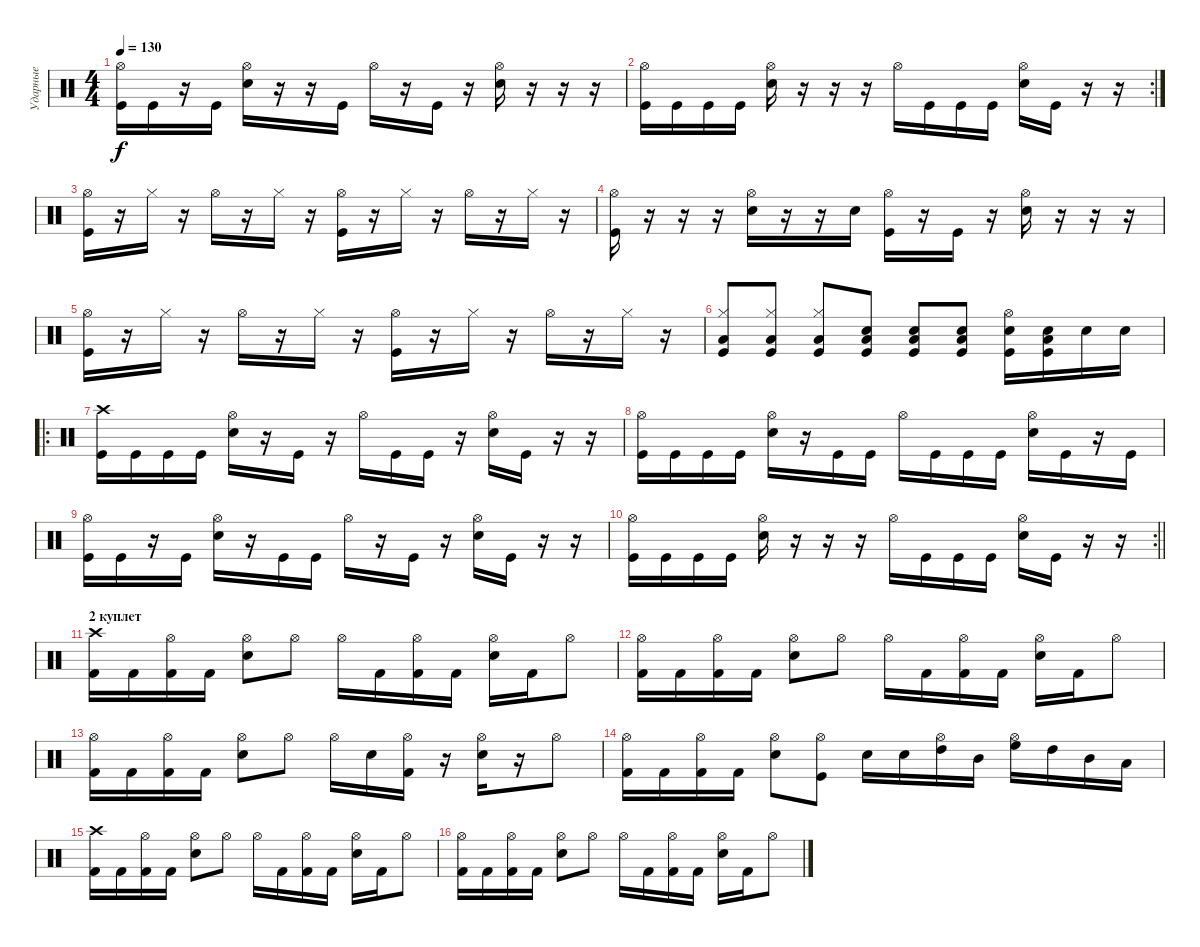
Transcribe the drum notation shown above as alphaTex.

\track ("Ударные" "Ударные") {instrument percussion}
\staff {score}
\articulation defaults
\ts (4 4)
\tempo 130
\clef neutral
\ks c
("Hi-Hat (open)" "Kick (hit)").16{dy f} "Kick (hit)".16 r.16 "Kick (hit)".16 ("Snare (hit) 2" "Hi-Hat (open)").16 r.16 r.16 "Kick (hit)".16 "Hi-Hat (open)".16 r.16 "Kick (hit)".16 r.16 ("Snare (hit) 2" "Hi-Hat (open)").16 r.16 r.16 r.16 |
\rc 2
("Hi-Hat (open)" "Kick (hit)").16 "Kick (hit)".16 "Kick (hit)".16 "Kick (hit)".16 ("Snare (hit) 2" "Hi-Hat (open)").16 r.16 r.16 r.16 "Hi-Hat (open)".16 "Kick (hit)".16 "Kick (hit)".16 "Kick (hit)".16 ("Snare (hit) 2" "Hi-Hat (open)").16 "Kick (hit)".16 r.16 r.16 |
("Hi-Hat (open)" "Kick (hit)").16 r.16 "Hi-Hat (closed)".16 r.16 "Hi-Hat (open)".16 r.16 "Hi-Hat (closed)".16 r.16 ("Hi-Hat (open)" "Kick (hit)").16 r.16 "Hi-Hat (closed)".16 r.16 "Hi-Hat (open)".16 r.16 "Hi-Hat (closed)".16 r.16 |
("Hi-Hat (open)" "Kick (hit)").16 r.16 r.16 r.16 ("Hi-Hat (open)" "Snare (hit) 2").16 r.16 r.16 "Snare (hit) 2".16 ("Hi-Hat (open)" "Kick (hit)").16 r.16 "Kick (hit)".16 r.16 ("Hi-Hat (open)" "Snare (hit) 2").16 r.16 r.16 r.16 |
("Hi-Hat (open)" "Kick (hit)").16 r.16 "Hi-Hat (closed)".16 r.16 "Hi-Hat (open)".16 r.16 "Hi-Hat (closed)".16 r.16 ("Hi-Hat (open)" "Kick (hit)").16 r.16 "Hi-Hat (closed)".16 r.16 "Hi-Hat (open)".16 r.16 "Hi-Hat (closed)".16 r.16 |
("Kick (hit)" "Hi-Hat (closed)" "Low Floor Tom (hit)").8 ("Kick (hit)" "Hi-Hat (closed)" "Low Floor Tom (hit)").8 ("Kick (hit)" "Hi-Hat (closed)" "Low Floor Tom (hit)").8 ("Kick (hit)" "Snare (hit) 2" "Low Floor Tom (hit)").8 ("Kick (hit)" "Snare (hit) 2" "Low Floor Tom (hit)").8 ("Kick (hit)" "Snare (hit) 2" "Low Floor Tom (hit)").8 ("Kick (hit)" "Snare (hit) 2" "Hi-Hat (open)").16 ("Kick (hit)" "Snare (hit) 2" "Low Floor Tom (hit)").16 "Snare (hit) 2".16 "Snare (hit) 2".16 |
\ro
("Crash high (hit)" "Kick (hit)").16 "Kick (hit)".16 "Kick (hit)".16 "Kick (hit)".16 ("Snare (hit) 2" "Hi-Hat (open)").16 r.16 "Kick (hit)".16 r.16 "Hi-Hat (open)".16 "Kick (hit)".16 "Kick (hit)".16 r.16 ("Snare (hit) 2" "Hi-Hat (open)").16 "Kick (hit)".16 r.16 r.16 |
("Hi-Hat (open)" "Kick (hit)").16 "Kick (hit)".16 "Kick (hit)".16 "Kick (hit)".16 ("Snare (hit) 2" "Hi-Hat (open)").16 r.16 "Kick (hit)".16 "Kick (hit)".16 "Hi-Hat (open)".16 "Kick (hit)".16 "Kick (hit)".16 "Kick (hit)".16 ("Snare (hit) 2" "Hi-Hat (open)").16 "Kick (hit)".16 r.16 "Kick (hit)".16 |
("Hi-Hat (open)" "Kick (hit)").16 "Kick (hit)".16 r.16 "Kick (hit)".16 ("Snare (hit) 2" "Hi-Hat (open)").16 r.16 "Kick (hit)".16 "Kick (hit)".16 "Hi-Hat (open)".16 r.16 "Kick (hit)".16 r.16 ("Snare (hit) 2" "Hi-Hat (open)").16 "Kick (hit)".16 r.16 r.16 |
\rc 2
\barLineRight lightlight
("Hi-Hat (open)" "Kick (hit)").16 "Kick (hit)".16 "Kick (hit)".16 "Kick (hit)".16 ("Snare (hit) 2" "Hi-Hat (open)").16 r.16 r.16 r.16 "Hi-Hat (open)".16 "Kick (hit)".16 "Kick (hit)".16 "Kick (hit)".16 ("Snare (hit) 2" "Hi-Hat (open)").16 "Kick (hit)".16 r.16 r.16 |
\section ("" "2 куплет")
("Crash high (hit)" "Kick (hit) 2").16 "Kick (hit) 2".16 ("Hi-Hat (open)" "Kick (hit) 2").16 "Kick (hit) 2".16 ("Hi-Hat (open)" "Electric Snare (hit)").8 "Hi-Hat (open)".8 "Hi-Hat (open)".16 "Kick (hit) 2".16 ("Hi-Hat (open)" "Kick (hit) 2").16 "Kick (hit) 2".16 ("Hi-Hat (open)" "Electric Snare (hit)").16 "Kick (hit) 2".16 "Hi-Hat (open)".8 |
("Hi-Hat (open)" "Kick (hit) 2").16 "Kick (hit) 2".16 ("Hi-Hat (open)" "Kick (hit) 2").16 "Kick (hit) 2".16 ("Hi-Hat (open)" "Electric Snare (hit)").8 "Hi-Hat (open)".8 "Hi-Hat (open)".16 "Kick (hit) 2".16 ("Hi-Hat (open)" "Kick (hit) 2").16 "Kick (hit) 2".16 ("Hi-Hat (open)" "Electric Snare (hit)").16 "Kick (hit) 2".16 "Hi-Hat (open)".8 |
("Hi-Hat (open)" "Kick (hit) 2").16 "Kick (hit) 2".16 ("Hi-Hat (open)" "Kick (hit) 2").16 "Kick (hit) 2".16 ("Hi-Hat (open)" "Electric Snare (hit)").8 "Hi-Hat (open)".8 "Hi-Hat (open)".16 "Snare (hit) 2".16 ("Hi-Hat (open)" "Kick (hit) 2").16 r.16 ("Hi-Hat (open)" "Electric Snare (hit)").16 r.16 "Hi-Hat (open)".8 |
("Hi-Hat (open)" "Kick (hit) 2").16 "Kick (hit) 2".16 ("Hi-Hat (open)" "Kick (hit) 2").16 "Kick (hit) 2".16 ("Hi-Hat (open)" "Electric Snare (hit)").8 ("Hi-Hat (open)" "Kick (hit)").8 "Snare (hit) 2".16 "Snare (hit) 2".16 ("High Tom (hit)" "Hi-Hat (open)").16 "Mid Tom (hit)".16 ("High Floor Tom (hit)" "Hi-Hat (open)").16 "High Tom (hit)".16 "Mid Tom (hit)".16 "Low Tom (hit)".16 |
("Crash high (hit)" "Kick (hit) 2").16 "Kick (hit) 2".16 ("Hi-Hat (open)" "Kick (hit) 2").16 "Kick (hit) 2".16 ("Hi-Hat (open)" "Electric Snare (hit)").8 "Hi-Hat (open)".8 "Hi-Hat (open)".16 "Kick (hit) 2".16 ("Hi-Hat (open)" "Kick (hit) 2").16 "Kick (hit) 2".16 ("Hi-Hat (open)" "Electric Snare (hit)").16 "Kick (hit) 2".16 "Hi-Hat (open)".8 |
("Hi-Hat (open)" "Kick (hit) 2").16 "Kick (hit) 2".16 ("Hi-Hat (open)" "Kick (hit) 2").16 "Kick (hit) 2".16 ("Hi-Hat (open)" "Electric Snare (hit)").8 "Hi-Hat (open)".8 "Hi-Hat (open)".16 "Kick (hit) 2".16 ("Hi-Hat (open)" "Kick (hit) 2").16 "Kick (hit) 2".16 ("Hi-Hat (open)" "Electric Snare (hit)").16 "Kick (hit) 2".16 "Hi-Hat (open)".8
